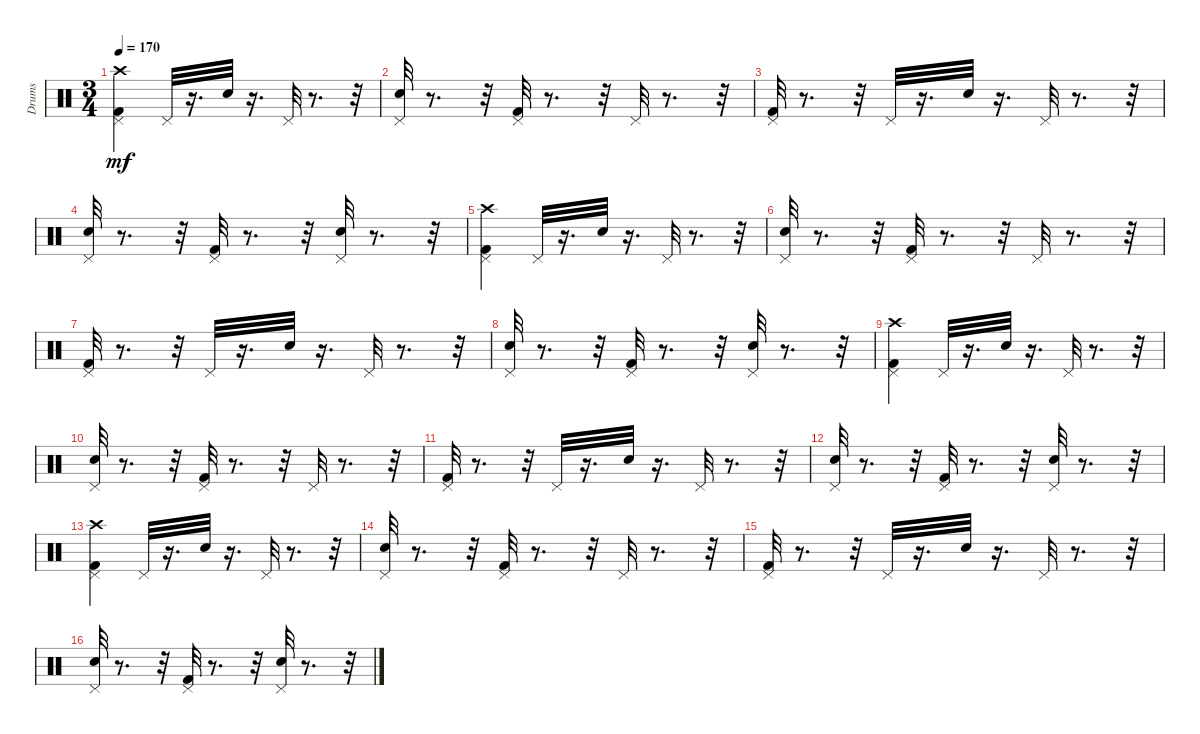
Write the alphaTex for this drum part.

\track ("Drums" "Drums") {instrument percussion}
\staff {score}
\articulation defaults
\ts (3 4)
\tempo 170
\clef neutral
\ks c
("Kick (hit) 2" "Pedal Hi-Hat (hit)" "Crash high (hit)").4{dy mf} "Pedal Hi-Hat (hit)".32 r.16{d} "Snare (hit) 2".32 r.16{d} "Pedal Hi-Hat (hit)".32 r.8{d} r.32 |
("Snare (hit) 2" "Pedal Hi-Hat (hit)").32 r.8{d} r.32 ("Kick (hit) 2" "Pedal Hi-Hat (hit)").32 r.8{d} r.32 "Pedal Hi-Hat (hit)".32 r.8{d} r.32 |
("Kick (hit) 2" "Pedal Hi-Hat (hit)").32 r.8{d} r.32 "Pedal Hi-Hat (hit)".32 r.16{d} "Snare (hit) 2".32 r.16{d} "Pedal Hi-Hat (hit)".32 r.8{d} r.32 |
("Snare (hit) 2" "Pedal Hi-Hat (hit)").32 r.8{d} r.32 ("Kick (hit) 2" "Pedal Hi-Hat (hit)").32 r.8{d} r.32 ("Snare (hit) 2" "Pedal Hi-Hat (hit)").32 r.8{d} r.32 |
("Kick (hit) 2" "Pedal Hi-Hat (hit)" "Crash high (hit)").4 "Pedal Hi-Hat (hit)".32 r.16{d} "Snare (hit) 2".32 r.16{d} "Pedal Hi-Hat (hit)".32 r.8{d} r.32 |
("Snare (hit) 2" "Pedal Hi-Hat (hit)").32 r.8{d} r.32 ("Kick (hit) 2" "Pedal Hi-Hat (hit)").32 r.8{d} r.32 "Pedal Hi-Hat (hit)".32 r.8{d} r.32 |
("Kick (hit) 2" "Pedal Hi-Hat (hit)").32 r.8{d} r.32 "Pedal Hi-Hat (hit)".32 r.16{d} "Snare (hit) 2".32 r.16{d} "Pedal Hi-Hat (hit)".32 r.8{d} r.32 |
("Snare (hit) 2" "Pedal Hi-Hat (hit)").32 r.8{d} r.32 ("Kick (hit) 2" "Pedal Hi-Hat (hit)").32 r.8{d} r.32 ("Snare (hit) 2" "Pedal Hi-Hat (hit)").32 r.8{d} r.32 |
("Kick (hit) 2" "Pedal Hi-Hat (hit)" "Crash high (hit)").4 "Pedal Hi-Hat (hit)".32 r.16{d} "Snare (hit) 2".32 r.16{d} "Pedal Hi-Hat (hit)".32 r.8{d} r.32 |
("Snare (hit) 2" "Pedal Hi-Hat (hit)").32 r.8{d} r.32 ("Kick (hit) 2" "Pedal Hi-Hat (hit)").32 r.8{d} r.32 "Pedal Hi-Hat (hit)".32 r.8{d} r.32 |
("Kick (hit) 2" "Pedal Hi-Hat (hit)").32 r.8{d} r.32 "Pedal Hi-Hat (hit)".32 r.16{d} "Snare (hit) 2".32 r.16{d} "Pedal Hi-Hat (hit)".32 r.8{d} r.32 |
("Snare (hit) 2" "Pedal Hi-Hat (hit)").32 r.8{d} r.32 ("Kick (hit) 2" "Pedal Hi-Hat (hit)").32 r.8{d} r.32 ("Snare (hit) 2" "Pedal Hi-Hat (hit)").32 r.8{d} r.32 |
("Kick (hit) 2" "Pedal Hi-Hat (hit)" "Crash high (hit)").4 "Pedal Hi-Hat (hit)".32 r.16{d} "Snare (hit) 2".32 r.16{d} "Pedal Hi-Hat (hit)".32 r.8{d} r.32 |
("Snare (hit) 2" "Pedal Hi-Hat (hit)").32 r.8{d} r.32 ("Kick (hit) 2" "Pedal Hi-Hat (hit)").32 r.8{d} r.32 "Pedal Hi-Hat (hit)".32 r.8{d} r.32 |
("Kick (hit) 2" "Pedal Hi-Hat (hit)").32 r.8{d} r.32 "Pedal Hi-Hat (hit)".32 r.16{d} "Snare (hit) 2".32 r.16{d} "Pedal Hi-Hat (hit)".32 r.8{d} r.32 |
("Snare (hit) 2" "Pedal Hi-Hat (hit)").32 r.8{d} r.32 ("Kick (hit) 2" "Pedal Hi-Hat (hit)").32 r.8{d} r.32 ("Snare (hit) 2" "Pedal Hi-Hat (hit)").32 r.8{d} r.32
